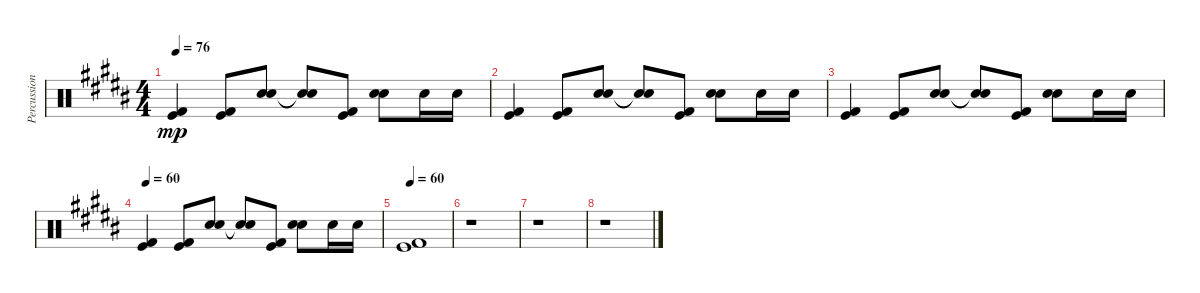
\track ("Percussion" "Percussion") {instrument percussion}
\staff {score}
\articulation defaults
\ts (4 4)
\tempo 76
\clef neutral
\ks b
("Kick (hit)" "Kick (hit) 2").4{dy mp} ("Kick (hit)" "Kick (hit) 2").8 ("Snare (hit) 2" "Snare (hit) 2").8 ("Snare (hit) 2"{t} "Snare (hit) 2"{t}).8 ("Kick (hit)" "Kick (hit) 2").8 ("Snare (hit) 2" "Snare (hit) 2").8 "Snare (hit) 2".16 "Snare (hit) 2".16 |
("Kick (hit)" "Kick (hit) 2").4 ("Kick (hit)" "Kick (hit) 2").8 ("Snare (hit) 2" "Snare (hit) 2").8 ("Snare (hit) 2"{t} "Snare (hit) 2"{t}).8 ("Kick (hit)" "Kick (hit) 2").8 ("Snare (hit) 2" "Snare (hit) 2").8 "Snare (hit) 2".16 "Snare (hit) 2".16 |
("Kick (hit)" "Kick (hit) 2").4 ("Kick (hit)" "Kick (hit) 2").8 ("Snare (hit) 2" "Snare (hit) 2").8 ("Snare (hit) 2"{t} "Snare (hit) 2"{t}).8 ("Kick (hit)" "Kick (hit) 2").8 ("Snare (hit) 2" "Snare (hit) 2").8 "Snare (hit) 2".16 "Snare (hit) 2".16 |
\tempo 60
("Kick (hit)" "Kick (hit) 2").4 ("Kick (hit)" "Kick (hit) 2").8 ("Snare (hit) 2" "Snare (hit) 2").8 ("Snare (hit) 2"{t} "Snare (hit) 2"{t}).8 ("Kick (hit)" "Kick (hit) 2").8 ("Snare (hit) 2" "Snare (hit) 2").8 "Snare (hit) 2".16 "Snare (hit) 2".16 |
\tempo 60
("Kick (hit)" "Kick (hit) 2").1 |
r.1 |
r.1 |
r.1
